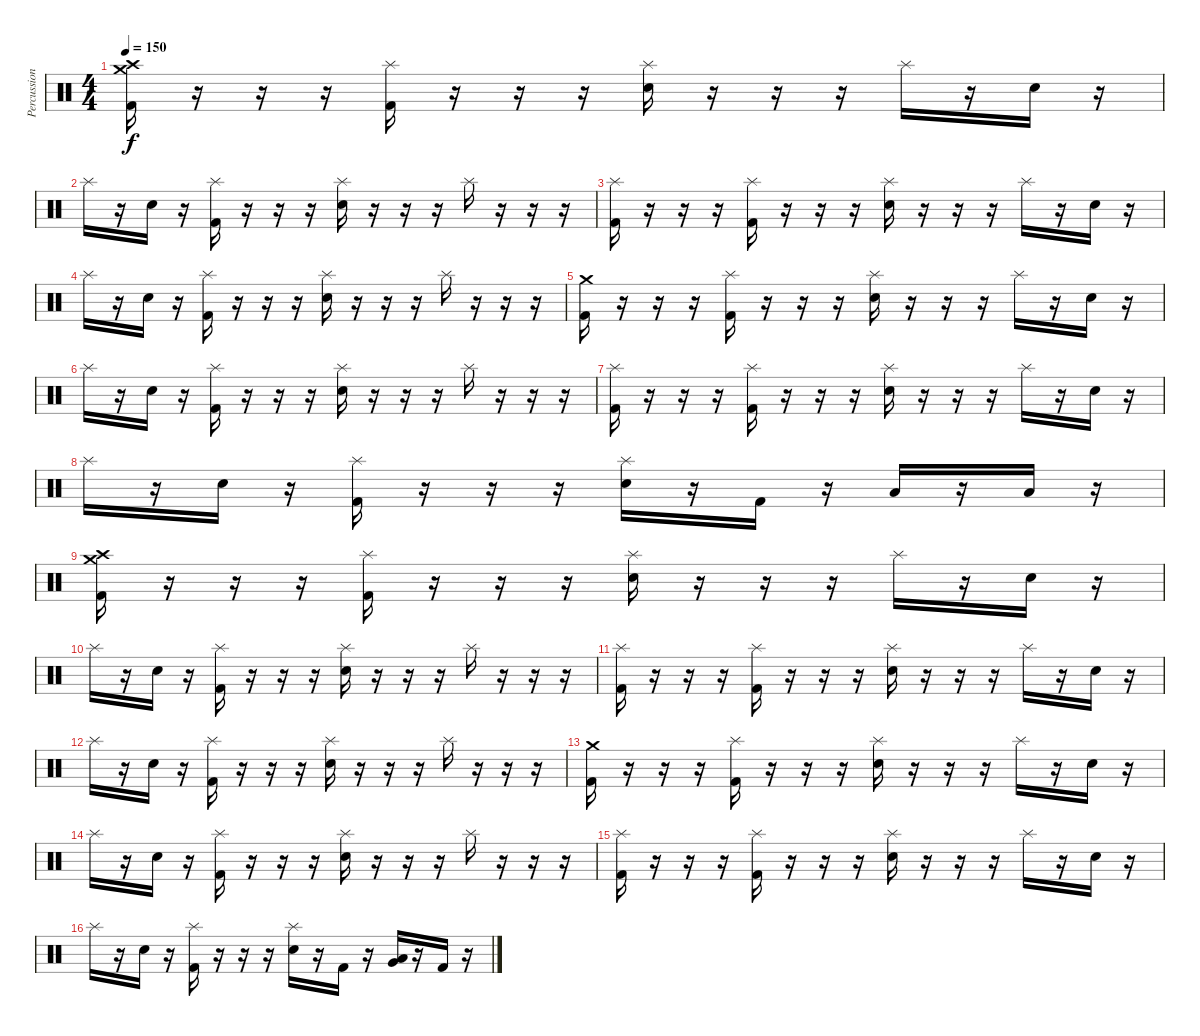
\track ("Percussion" "Percussion") {instrument percussion}
\staff {score}
\articulation defaults
\ts (4 4)
\section ("" "")
\tempo 150
\clef neutral
\ks c
("Crash medium (hit)" "Crash high (hit)" "Kick (hit) 2").16{dy f} r.16 r.16 r.16 ("Splash (hit)" "Kick (hit) 2").16 r.16 r.16 r.16 ("Splash (hit)" "Electric Snare (hit)").16 r.16 r.16 r.16 "Splash (hit)".16 r.16 "Electric Snare (hit)".16 r.16 |
"Splash (hit)".16 r.16 "Electric Snare (hit)".16 r.16 ("Splash (hit)" "Kick (hit) 2").16 r.16 r.16 r.16 ("Splash (hit)" "Electric Snare (hit)").16 r.16 r.16 r.16 "Splash (hit)".16 r.16 r.16 r.16 |
("Splash (hit)" "Kick (hit) 2").16 r.16 r.16 r.16 ("Splash (hit)" "Kick (hit) 2").16 r.16 r.16 r.16 ("Splash (hit)" "Electric Snare (hit)").16 r.16 r.16 r.16 "Splash (hit)".16 r.16 "Electric Snare (hit)".16 r.16 |
"Splash (hit)".16 r.16 "Electric Snare (hit)".16 r.16 ("Splash (hit)" "Kick (hit) 2").16 r.16 r.16 r.16 ("Splash (hit)" "Electric Snare (hit)").16 r.16 r.16 r.16 "Splash (hit)".16 r.16 r.16 r.16 |
("Crash medium (hit)" "Kick (hit) 2").16 r.16 r.16 r.16 ("Splash (hit)" "Kick (hit) 2").16 r.16 r.16 r.16 ("Splash (hit)" "Electric Snare (hit)").16 r.16 r.16 r.16 "Splash (hit)".16 r.16 "Electric Snare (hit)".16 r.16 |
"Splash (hit)".16 r.16 "Electric Snare (hit)".16 r.16 ("Splash (hit)" "Kick (hit) 2").16 r.16 r.16 r.16 ("Splash (hit)" "Electric Snare (hit)").16 r.16 r.16 r.16 "Splash (hit)".16 r.16 r.16 r.16 |
("Splash (hit)" "Kick (hit) 2").16 r.16 r.16 r.16 ("Splash (hit)" "Kick (hit) 2").16 r.16 r.16 r.16 ("Splash (hit)" "Electric Snare (hit)").16 r.16 r.16 r.16 "Splash (hit)".16 r.16 "Electric Snare (hit)".16 r.16 |
"Splash (hit)".16 r.16 "Electric Snare (hit)".16 r.16 ("Splash (hit)" "Kick (hit) 2").16 r.16 r.16 r.16 ("Splash (hit)" "Electric Snare (hit)").16 r.16 "Kick (hit) 2".16 r.16 "Low Tom (hit)".16 r.16 "Low Tom (hit)".16 r.16 |
("Crash medium (hit)" "Crash high (hit)" "Kick (hit) 2").16 r.16 r.16 r.16 ("Splash (hit)" "Kick (hit) 2").16 r.16 r.16 r.16 ("Splash (hit)" "Electric Snare (hit)").16 r.16 r.16 r.16 "Splash (hit)".16 r.16 "Electric Snare (hit)".16 r.16 |
"Splash (hit)".16 r.16 "Electric Snare (hit)".16 r.16 ("Splash (hit)" "Kick (hit) 2").16 r.16 r.16 r.16 ("Splash (hit)" "Electric Snare (hit)").16 r.16 r.16 r.16 "Splash (hit)".16 r.16 r.16 r.16 |
("Splash (hit)" "Kick (hit) 2").16 r.16 r.16 r.16 ("Splash (hit)" "Kick (hit) 2").16 r.16 r.16 r.16 ("Splash (hit)" "Electric Snare (hit)").16 r.16 r.16 r.16 "Splash (hit)".16 r.16 "Electric Snare (hit)".16 r.16 |
"Splash (hit)".16 r.16 "Electric Snare (hit)".16 r.16 ("Splash (hit)" "Kick (hit) 2").16 r.16 r.16 r.16 ("Splash (hit)" "Electric Snare (hit)").16 r.16 r.16 r.16 "Splash (hit)".16 r.16 r.16 r.16 |
("Crash medium (hit)" "Kick (hit) 2").16 r.16 r.16 r.16 ("Splash (hit)" "Kick (hit) 2").16 r.16 r.16 r.16 ("Splash (hit)" "Electric Snare (hit)").16 r.16 r.16 r.16 "Splash (hit)".16 r.16 "Electric Snare (hit)".16 r.16 |
"Splash (hit)".16 r.16 "Electric Snare (hit)".16 r.16 ("Splash (hit)" "Kick (hit) 2").16 r.16 r.16 r.16 ("Splash (hit)" "Electric Snare (hit)").16 r.16 r.16 r.16 "Splash (hit)".16 r.16 r.16 r.16 |
("Splash (hit)" "Kick (hit) 2").16 r.16 r.16 r.16 ("Splash (hit)" "Kick (hit) 2").16 r.16 r.16 r.16 ("Splash (hit)" "Electric Snare (hit)").16 r.16 r.16 r.16 "Splash (hit)".16 r.16 "Electric Snare (hit)".16 r.16 |
"Splash (hit)".16 r.16 "Electric Snare (hit)".16 r.16 ("Splash (hit)" "Kick (hit) 2").16 r.16 r.16 r.16 ("Splash (hit)" "Electric Snare (hit)").16 r.16 "Kick (hit) 2".16 r.16 ("Very Low Tom (hit)" "Low Tom (hit)").16 r.16 "Kick (hit) 2".16 r.16
